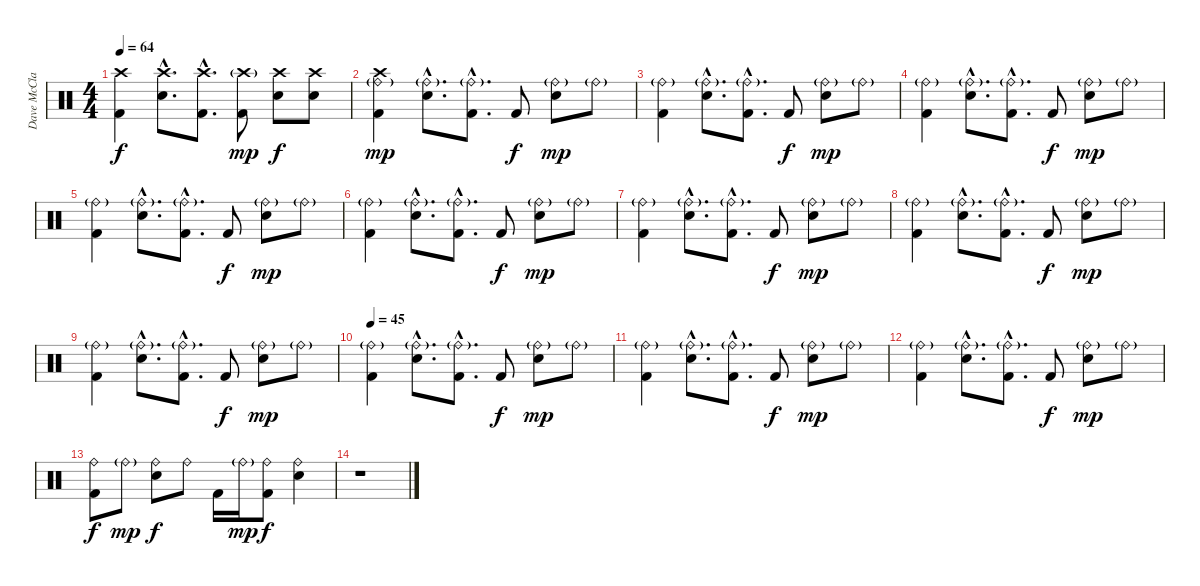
\track ("Dave McClain" "Dave McCla") {instrument percussion}
\staff {score}
\articulation defaults
\ts (4 4)
\tempo 64
\clef neutral
\ks c
("Crash high (hit)" "Kick (hit) 2").4{dy f} ("Crash high (hit)"{hac} "Electric Snare (hit)"{hac}).8{d} ("Crash high (hit)"{hac} "Kick (hit) 2"{hac}).8{d} ("Crash high (hit)"{g} "Kick (hit) 2").8{dy mp} ("Crash high (hit)" "Electric Snare (hit)").8{dy f} ("Crash high (hit)" "Electric Snare (hit)").8 |
("Ride (bell)"{g} "Crash high (hit)" "Kick (hit) 2").4{dy mp} ("Ride (bell)"{g hac} "Electric Snare (hit)"{hac}).8{d} ("Ride (bell)"{g hac} "Kick (hit) 2"{hac}).8{d} "Kick (hit) 2".8{dy f} ("Ride (bell)"{g} "Electric Snare (hit)").8{dy mp} "Ride (bell)"{g}.8 |
("Ride (bell)"{g} "Kick (hit) 2").4 ("Ride (bell)"{g hac} "Electric Snare (hit)"{hac}).8{d} ("Ride (bell)"{g hac} "Kick (hit) 2"{hac}).8{d} "Kick (hit) 2".8{dy f} ("Ride (bell)"{g} "Electric Snare (hit)").8{dy mp} "Ride (bell)"{g}.8 |
("Ride (bell)"{g} "Kick (hit) 2").4 ("Ride (bell)"{g hac} "Electric Snare (hit)"{hac}).8{d} ("Ride (bell)"{g hac} "Kick (hit) 2"{hac}).8{d} "Kick (hit) 2".8{dy f} ("Ride (bell)"{g} "Electric Snare (hit)").8{dy mp} "Ride (bell)"{g}.8 |
("Ride (bell)"{g} "Kick (hit) 2").4 ("Ride (bell)"{g hac} "Electric Snare (hit)"{hac}).8{d} ("Ride (bell)"{g hac} "Kick (hit) 2"{hac}).8{d} "Kick (hit) 2".8{dy f} ("Ride (bell)"{g} "Electric Snare (hit)").8{dy mp} "Ride (bell)"{g}.8 |
("Ride (bell)"{g} "Kick (hit) 2").4 ("Ride (bell)"{g hac} "Electric Snare (hit)"{hac}).8{d} ("Ride (bell)"{g hac} "Kick (hit) 2"{hac}).8{d} "Kick (hit) 2".8{dy f} ("Ride (bell)"{g} "Electric Snare (hit)").8{dy mp} "Ride (bell)"{g}.8 |
("Ride (bell)"{g} "Kick (hit) 2").4 ("Ride (bell)"{g hac} "Electric Snare (hit)"{hac}).8{d} ("Ride (bell)"{g hac} "Kick (hit) 2"{hac}).8{d} "Kick (hit) 2".8{dy f} ("Ride (bell)"{g} "Electric Snare (hit)").8{dy mp} "Ride (bell)"{g}.8 |
("Ride (bell)"{g} "Kick (hit) 2").4 ("Ride (bell)"{g hac} "Electric Snare (hit)"{hac}).8{d} ("Ride (bell)"{g hac} "Kick (hit) 2"{hac}).8{d} "Kick (hit) 2".8{dy f} ("Ride (bell)"{g} "Electric Snare (hit)").8{dy mp} "Ride (bell)"{g}.8 |
("Ride (bell)"{g} "Kick (hit) 2").4 ("Ride (bell)"{g hac} "Electric Snare (hit)"{hac}).8{d} ("Ride (bell)"{g hac} "Kick (hit) 2"{hac}).8{d} "Kick (hit) 2".8{dy f} ("Ride (bell)"{g} "Electric Snare (hit)").8{dy mp} "Ride (bell)"{g}.8 |
\tempo 45
("Ride (bell)"{g} "Kick (hit) 2").4 ("Ride (bell)"{g hac} "Electric Snare (hit)"{hac}).8{d} ("Ride (bell)"{g hac} "Kick (hit) 2"{hac}).8{d} "Kick (hit) 2".8{dy f} ("Ride (bell)"{g} "Electric Snare (hit)").8{dy mp} "Ride (bell)"{g}.8 |
("Ride (bell)"{g} "Kick (hit) 2").4 ("Ride (bell)"{g hac} "Electric Snare (hit)"{hac}).8{d} ("Ride (bell)"{g hac} "Kick (hit) 2"{hac}).8{d} "Kick (hit) 2".8{dy f} ("Ride (bell)"{g} "Electric Snare (hit)").8{dy mp} "Ride (bell)"{g}.8 |
("Ride (bell)"{g} "Kick (hit) 2").4 ("Ride (bell)"{g hac} "Electric Snare (hit)"{hac}).8{d} ("Ride (bell)"{g hac} "Kick (hit) 2"{hac}).8{d} "Kick (hit) 2".8{dy f} ("Ride (bell)"{g} "Electric Snare (hit)").8{dy mp} "Ride (bell)"{g}.8 |
("Ride (bell)" "Kick (hit) 2").8{dy f} "Ride (bell)"{g}.8{dy mp} ("Ride (bell)" "Electric Snare (hit)").8{dy f} "Ride (bell)".8 "Kick (hit) 2".16 "Ride (bell)"{g}.16{dy mp} ("Ride (bell)" "Kick (hit) 2").8{dy f} ("Ride (bell)" "Electric Snare (hit)").4 |
r.1
